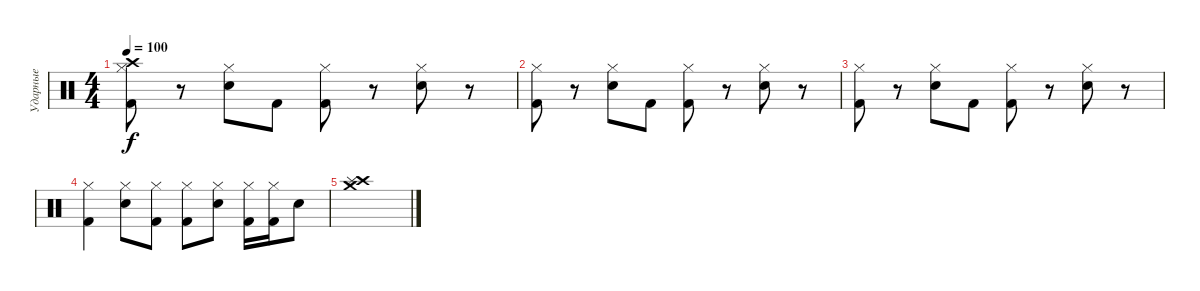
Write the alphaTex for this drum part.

\track ("Ударные" "Ударные") {instrument percussion}
\staff {score}
\articulation defaults
\ts (4 4)
\tempo 100
\clef neutral
\ks c
("Hi-Hat (closed)" "Crash high (hit)" "Kick (hit) 2").8{dy f} r.8 ("Hi-Hat (closed)" "Snare (hit) 2").8 "Kick (hit) 2".8 ("Hi-Hat (closed)" "Kick (hit) 2").8 r.8 ("Hi-Hat (closed)" "Snare (hit) 2").8 r.8 |
("Hi-Hat (closed)" "Kick (hit) 2").8 r.8 ("Hi-Hat (closed)" "Snare (hit) 2").8 "Kick (hit) 2".8 ("Hi-Hat (closed)" "Kick (hit) 2").8 r.8 ("Hi-Hat (closed)" "Snare (hit) 2").8 r.8 |
("Hi-Hat (closed)" "Kick (hit) 2").8 r.8 ("Hi-Hat (closed)" "Snare (hit) 2").8 "Kick (hit) 2".8 ("Hi-Hat (closed)" "Kick (hit) 2").8 r.8 ("Hi-Hat (closed)" "Snare (hit) 2").8 r.8 |
("Kick (hit) 2" "Hi-Hat (closed)").4 ("Snare (hit) 2" "Hi-Hat (closed)").8 ("Kick (hit) 2" "Hi-Hat (closed)").8 ("Kick (hit) 2" "Hi-Hat (closed)").8 ("Snare (hit) 2" "Hi-Hat (closed)").8 ("Kick (hit) 2" "Hi-Hat (closed)").16 ("Kick (hit) 2" "Hi-Hat (closed)").16 "Snare (hit) 2".8 |
("Crash high (hit)" "Splash (hit)" "Crash medium (hit)").1
